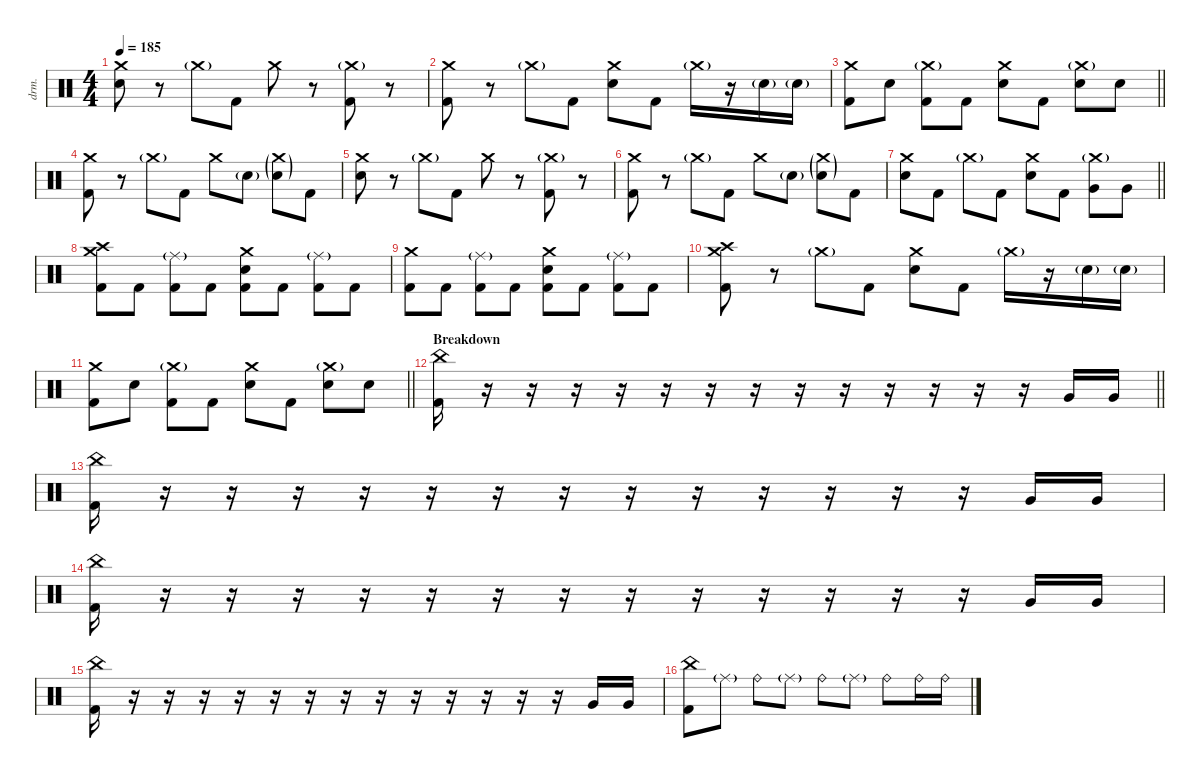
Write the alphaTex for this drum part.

\defaultSystemsLayout 4
\hideDynamics
\bracketExtendMode nobrackets
\track ("Drums - Šimon" "drm.") {instrument percussion}
\staff {score}
\articulation defaults
\ts (4 4)
\tempo 185
\clef neutral
\ks c
("Crash medium (hit)" "Snare (hit) 2").8{dy ff} r.8 "Crash medium (hit)"{g}.8{dy f} "Kick (hit) 2".8{dy ff} "Crash medium (hit)".8 r.8 ("Kick (hit) 2" "Crash medium (hit)"{g}).8 r.8 |
("Kick (hit) 2" "Crash medium (hit)").8 r.8 "Crash medium (hit)"{g}.8 "Kick (hit) 2".8 ("Snare (hit) 2" "Crash medium (hit)").8 "Kick (hit) 2".8 "Crash medium (hit)"{g}.16 r.16 "Snare (hit) 2"{g}.16 "Snare (hit) 2"{g}.16 |
\barLineRight lightlight
("Crash medium (hit)" "Kick (hit) 2").8 "Snare (hit) 2".8 ("Kick (hit) 2" "Crash medium (hit)"{g}).8 "Kick (hit) 2".8 ("Snare (hit) 2" "Crash medium (hit)").8 "Kick (hit) 2".8 ("Crash medium (hit)"{g} "Snare (hit) 2").8 "Snare (hit) 2".8 |
("Crash medium (hit)" "Kick (hit) 2").8 r.8 "Crash medium (hit)"{g}.8{dy mf} "Kick (hit) 2".8{dy ff} "Crash medium (hit)".8 "Snare (hit) 2"{g}.8 ("Snare (hit) 2"{g} "Crash medium (hit)"{g}).8 "Kick (hit) 2".8 |
("Crash medium (hit)" "Snare (hit) 2").8 r.8 "Crash medium (hit)"{g}.8{dy mf} "Kick (hit) 2".8{dy ff} "Crash medium (hit)".8 r.8 ("Kick (hit) 2" "Crash medium (hit)"{g}).8 r.8 |
("Crash medium (hit)" "Kick (hit) 2").8 r.8 "Crash medium (hit)"{g}.8{dy mf} "Kick (hit) 2".8{dy ff} "Crash medium (hit)".8 "Snare (hit) 2"{g}.8 ("Snare (hit) 2"{g} "Crash medium (hit)"{g}).8 "Kick (hit) 2".8 |
\barLineRight lightlight
("Crash medium (hit)" "Snare (hit) 2").8 "Kick (hit) 2".8 "Crash medium (hit)"{g}.8{dy mf} "Kick (hit) 2".8{dy ff} ("Crash medium (hit)" "Snare (hit) 2").8 "Kick (hit) 2".8 ("Very Low Tom (hit)" "Crash medium (hit)"{g}).8 "Very Low Tom (hit)".8 |
("Crash medium (hit)" "Kick (hit) 2" "Crash high (hit)").8 "Kick (hit) 2".8 ("Kick (hit) 2" "Ride (middle)"{g}).8 "Kick (hit) 2".8 ("Snare (hit) 2" "Crash medium (hit)" "Kick (hit) 2").8 "Kick (hit) 2".8 ("Kick (hit) 2" "Ride (middle)"{g}).8 "Kick (hit) 2".8 |
("Crash medium (hit)" "Kick (hit) 2").8 "Kick (hit) 2".8 ("Kick (hit) 2" "Ride (middle)"{g}).8 "Kick (hit) 2".8 ("Snare (hit) 2" "Crash medium (hit)" "Kick (hit) 2").8 "Kick (hit) 2".8 ("Kick (hit) 2" "Ride (middle)"{g}).8 "Kick (hit) 2".8 |
("Kick (hit) 2" "Crash medium (hit)" "Crash high (hit)").8 r.8 "Crash medium (hit)"{g}.8 "Kick (hit) 2".8 ("Snare (hit) 2" "Crash medium (hit)").8 "Kick (hit) 2".8 "Crash medium (hit)"{g}.16 r.16 "Snare (hit) 2"{g}.16 "Snare (hit) 2"{g}.16 |
\barLineRight lightlight
("Crash medium (hit)" "Kick (hit) 2").8 "Snare (hit) 2".8 ("Kick (hit) 2" "Crash medium (hit)"{g}).8 "Kick (hit) 2".8 ("Snare (hit) 2" "Crash medium (hit)").8 "Kick (hit) 2".8 ("Crash medium (hit)"{g} "Snare (hit) 2").8 "Snare (hit) 2".8 |
\section ("" "Breakdown")
\barLineRight lightlight
("Kick (hit) 2" "China (hit)").16 r.16 r.16 r.16 r.16 r.16 r.16 r.16 r.16 r.16 r.16 r.16 r.16 r.16 "Very Low Tom (hit)".16 "Very Low Tom (hit)".16 |
("Kick (hit) 2" "China (hit)").16 r.16 r.16 r.16 r.16 r.16 r.16 r.16 r.16 r.16 r.16 r.16 r.16 r.16 "Very Low Tom (hit)".16 "Very Low Tom (hit)".16 |
("Kick (hit) 2" "China (hit)").16 r.16 r.16 r.16 r.16 r.16 r.16 r.16 r.16 r.16 r.16 r.16 r.16 r.16 "Very Low Tom (hit)".16 "Very Low Tom (hit)".16 |
("Kick (hit) 2" "China (hit)").16 r.16 r.16 r.16 r.16 r.16 r.16 r.16 r.16 r.16 r.16 r.16 r.16 r.16 "Very Low Tom (hit)".16 "Very Low Tom (hit)".16 |
("Kick (hit) 2" "China (hit)").8 "Ride (middle)"{g}.8 "Ride (bell)".8 "Ride (middle)"{g}.8 "Ride (bell)".8 "Ride (middle)"{g}.8 "Ride (bell)".8 "Ride (bell)".16 "Ride (bell)".16
